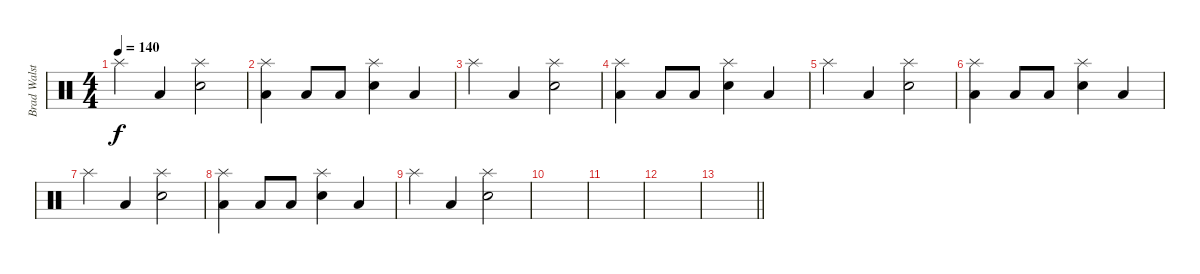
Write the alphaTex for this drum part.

\track ("Brad Walst" "Brad Walst") {instrument percussion}
\staff {score}
\articulation defaults
\ts (4 4)
\tempo 140
\clef neutral
\ks c "Splash (hit)".4{dy f} "Low Floor Tom (hit)".4
("Splash (hit)" "Electric Snare (hit)").2 |
("Low Floor Tom (hit)" "Splash (hit)").4 "Low Floor Tom (hit)".8 "Low Floor Tom (hit)".8 ("Splash (hit)" "Electric Snare (hit)").4 "Low Floor Tom (hit)".4 |
"Splash (hit)".4 "Low Floor Tom (hit)".4 ("Splash (hit)" "Electric Snare (hit)").2 |
("Low Floor Tom (hit)" "Splash (hit)").4 "Low Floor Tom (hit)".8 "Low Floor Tom (hit)".8 ("Splash (hit)" "Electric Snare (hit)").4 "Low Floor Tom (hit)".4 |
"Splash (hit)".4 "Low Floor Tom (hit)".4 ("Splash (hit)" "Electric Snare (hit)").2 |
("Low Floor Tom (hit)" "Splash (hit)").4 "Low Floor Tom (hit)".8 "Low Floor Tom (hit)".8 ("Splash (hit)" "Electric Snare (hit)").4 "Low Floor Tom (hit)".4 |
"Splash (hit)".4 "Low Floor Tom (hit)".4 ("Splash (hit)" "Electric Snare (hit)").2 |
("Low Floor Tom (hit)" "Splash (hit)").4 "Low Floor Tom (hit)".8 "Low Floor Tom (hit)".8 ("Splash (hit)" "Electric Snare (hit)").4 "Low Floor Tom (hit)".4 |
"Splash (hit)".4 "Low Floor Tom (hit)".4 ("Splash (hit)" "Electric Snare (hit)").2 |
|
|
|
\barLineRight lightlight
